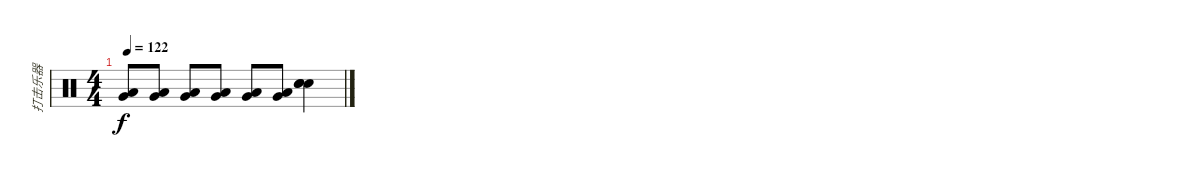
\track ("打击乐器" "打击乐器") {instrument percussion}
\staff {score}
\articulation defaults
\ts (4 4)
\tempo 122
\clef neutral
\ks c
("Low Tom (hit)" "Very Low Tom (hit)").8{dy f} ("Low Tom (hit)" "Very Low Tom (hit)").8 ("Low Tom (hit)" "Very Low Tom (hit)").8 ("Low Tom (hit)" "Very Low Tom (hit)").8 ("Low Tom (hit)" "Very Low Tom (hit)").8 ("Low Tom (hit)" "Very Low Tom (hit)").8 ("Electric Snare (hit)" "Electric Snare (hit)" "Snare (hit) 2").4
